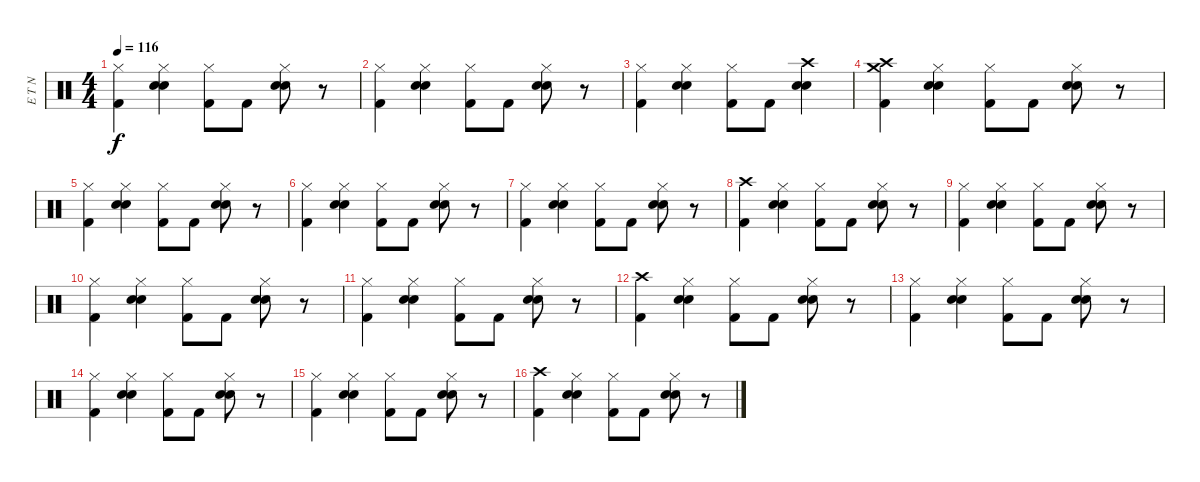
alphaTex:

\track ("E T N" "E T N") {instrument percussion}
\staff {score}
\articulation defaults
\ts (4 4)
\tempo 116
\clef neutral
\ks c
("Hi-Hat (closed)" "Kick (hit) 2").4{dy f} ("Hi-Hat (closed)" "Electric Snare (hit)" "Electric Snare (hit)").4 ("Hi-Hat (closed)" "Kick (hit) 2").8 "Kick (hit) 2".8 ("Hi-Hat (closed)" "Electric Snare (hit)" "Electric Snare (hit)").8 r.8 |
("Hi-Hat (closed)" "Kick (hit) 2").4 ("Hi-Hat (closed)" "Electric Snare (hit)" "Electric Snare (hit)").4 ("Hi-Hat (closed)" "Kick (hit) 2").8 "Kick (hit) 2".8 ("Hi-Hat (closed)" "Electric Snare (hit)" "Electric Snare (hit)").8 r.8 |
("Hi-Hat (closed)" "Kick (hit) 2").4 ("Hi-Hat (closed)" "Electric Snare (hit)" "Electric Snare (hit)").4 ("Hi-Hat (closed)" "Kick (hit) 2").8 "Kick (hit) 2".8 ("Crash high (hit)" "Electric Snare (hit)" "Electric Snare (hit)").4 |
("Crash high (hit)" "Crash medium (hit)" "Kick (hit) 2").4 ("Hi-Hat (closed)" "Electric Snare (hit)" "Electric Snare (hit)").4 ("Hi-Hat (closed)" "Kick (hit) 2").8 "Kick (hit) 2".8 ("Hi-Hat (closed)" "Electric Snare (hit)" "Electric Snare (hit)").8 r.8 |
("Hi-Hat (closed)" "Kick (hit) 2").4 ("Hi-Hat (closed)" "Electric Snare (hit)" "Electric Snare (hit)").4 ("Hi-Hat (closed)" "Kick (hit) 2").8 "Kick (hit) 2".8 ("Hi-Hat (closed)" "Electric Snare (hit)" "Electric Snare (hit)").8 r.8 |
("Hi-Hat (closed)" "Kick (hit) 2").4 ("Hi-Hat (closed)" "Electric Snare (hit)" "Electric Snare (hit)").4 ("Hi-Hat (closed)" "Kick (hit) 2").8 "Kick (hit) 2".8 ("Hi-Hat (closed)" "Electric Snare (hit)" "Electric Snare (hit)").8 r.8 |
("Hi-Hat (closed)" "Kick (hit) 2").4 ("Hi-Hat (closed)" "Electric Snare (hit)" "Electric Snare (hit)").4 ("Hi-Hat (closed)" "Kick (hit) 2").8 "Kick (hit) 2".8 ("Hi-Hat (closed)" "Electric Snare (hit)" "Electric Snare (hit)").8 r.8 |
("Crash high (hit)" "Kick (hit) 2").4 ("Hi-Hat (closed)" "Electric Snare (hit)" "Electric Snare (hit)").4 ("Hi-Hat (closed)" "Kick (hit) 2").8 "Kick (hit) 2".8 ("Hi-Hat (closed)" "Electric Snare (hit)" "Electric Snare (hit)").8 r.8 |
("Hi-Hat (closed)" "Kick (hit) 2").4 ("Hi-Hat (closed)" "Electric Snare (hit)" "Electric Snare (hit)").4 ("Hi-Hat (closed)" "Kick (hit) 2").8 "Kick (hit) 2".8 ("Hi-Hat (closed)" "Electric Snare (hit)" "Electric Snare (hit)").8 r.8 |
("Hi-Hat (closed)" "Kick (hit) 2").4 ("Hi-Hat (closed)" "Electric Snare (hit)" "Electric Snare (hit)").4 ("Hi-Hat (closed)" "Kick (hit) 2").8 "Kick (hit) 2".8 ("Hi-Hat (closed)" "Electric Snare (hit)" "Electric Snare (hit)").8 r.8 |
("Hi-Hat (closed)" "Kick (hit) 2").4 ("Hi-Hat (closed)" "Electric Snare (hit)" "Electric Snare (hit)").4 ("Hi-Hat (closed)" "Kick (hit) 2").8 "Kick (hit) 2".8 ("Hi-Hat (closed)" "Electric Snare (hit)" "Electric Snare (hit)").8 r.8 |
("Crash high (hit)" "Kick (hit) 2").4 ("Hi-Hat (closed)" "Electric Snare (hit)" "Electric Snare (hit)").4 ("Hi-Hat (closed)" "Kick (hit) 2").8 "Kick (hit) 2".8 ("Hi-Hat (closed)" "Electric Snare (hit)" "Electric Snare (hit)").8 r.8 |
("Hi-Hat (closed)" "Kick (hit) 2").4 ("Hi-Hat (closed)" "Electric Snare (hit)" "Electric Snare (hit)").4 ("Hi-Hat (closed)" "Kick (hit) 2").8 "Kick (hit) 2".8 ("Hi-Hat (closed)" "Electric Snare (hit)" "Electric Snare (hit)").8 r.8 |
("Hi-Hat (closed)" "Kick (hit) 2").4 ("Hi-Hat (closed)" "Electric Snare (hit)" "Electric Snare (hit)").4 ("Hi-Hat (closed)" "Kick (hit) 2").8 "Kick (hit) 2".8 ("Hi-Hat (closed)" "Electric Snare (hit)" "Electric Snare (hit)").8 r.8 |
("Hi-Hat (closed)" "Kick (hit) 2").4 ("Hi-Hat (closed)" "Electric Snare (hit)" "Electric Snare (hit)").4 ("Hi-Hat (closed)" "Kick (hit) 2").8 "Kick (hit) 2".8 ("Hi-Hat (closed)" "Electric Snare (hit)" "Electric Snare (hit)").8 r.8 |
("Crash high (hit)" "Kick (hit) 2").4 ("Hi-Hat (closed)" "Electric Snare (hit)" "Electric Snare (hit)").4 ("Hi-Hat (closed)" "Kick (hit) 2").8 "Kick (hit) 2".8 ("Hi-Hat (closed)" "Electric Snare (hit)" "Electric Snare (hit)").8 r.8
